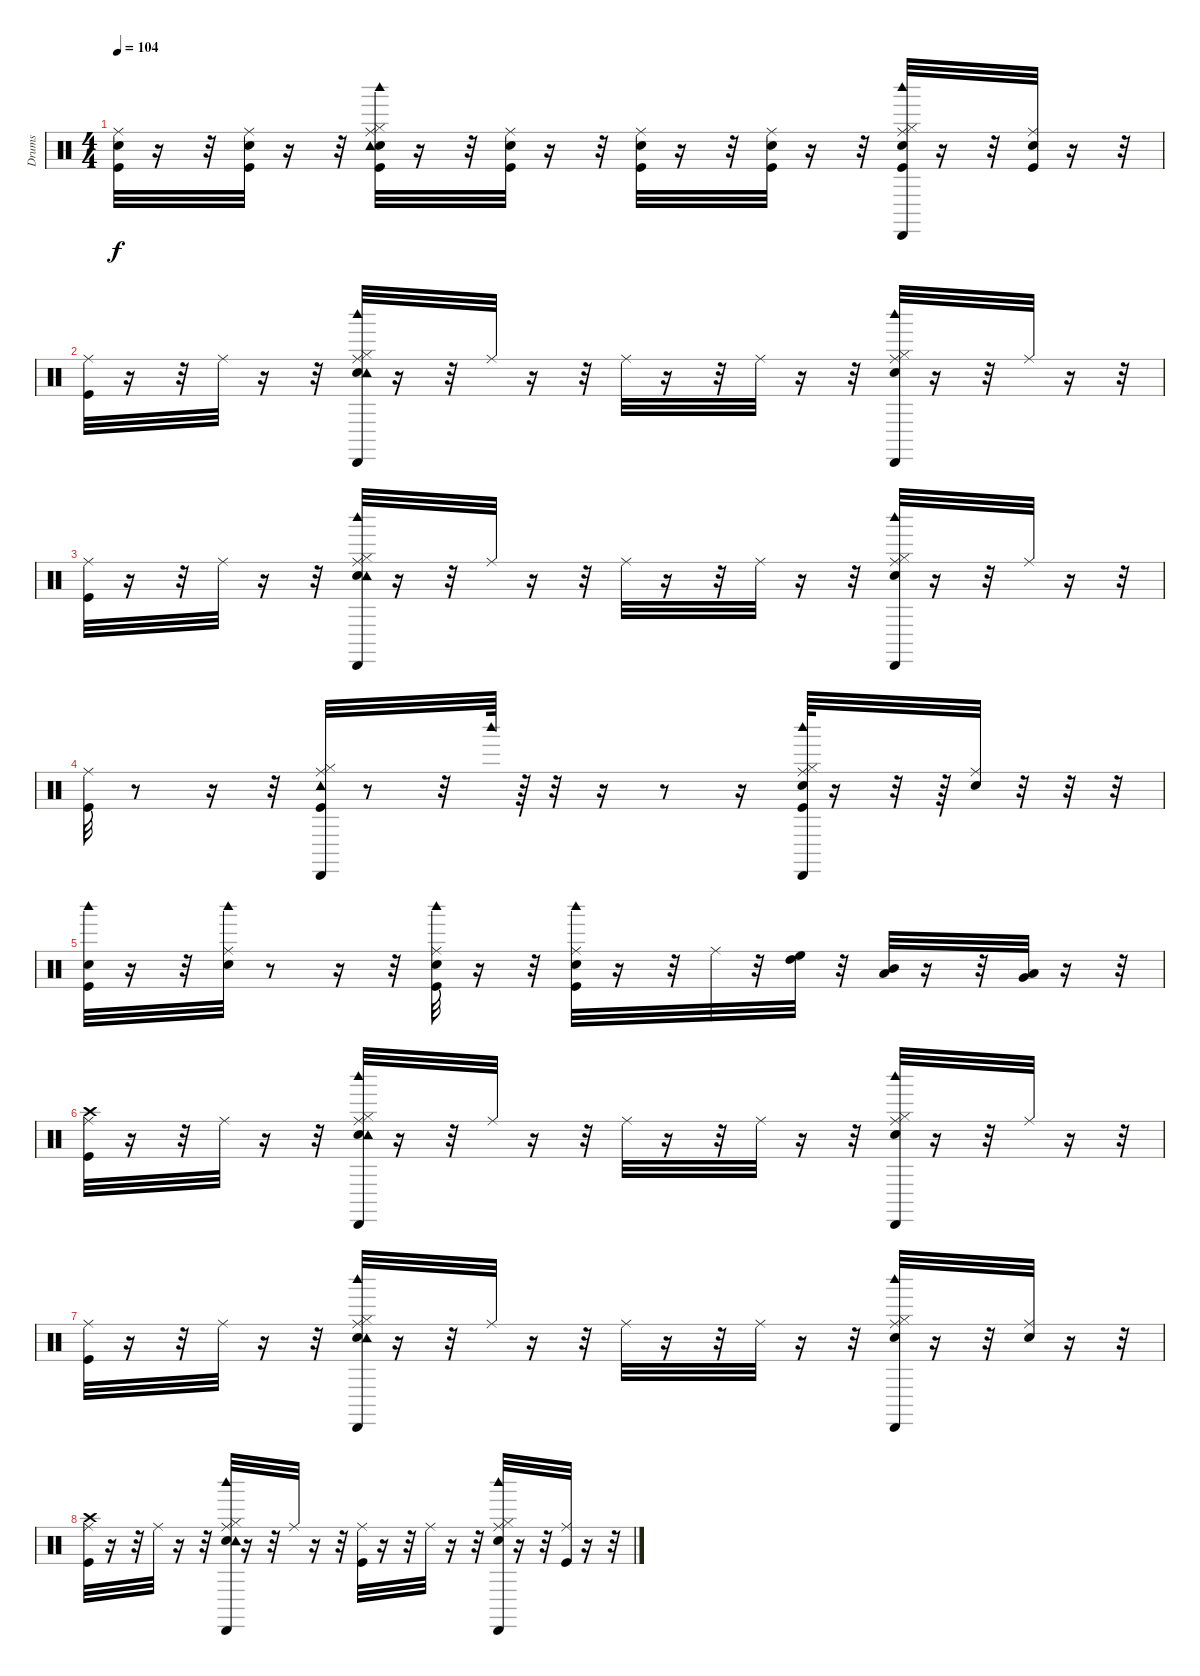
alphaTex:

\track ("Drums" "Drums") {instrument percussion}
\staff {score}
\articulation defaults
\ts (4 4)
\tempo 104
\clef neutral
\ks c
("Kick (hit)" "Snare (hit) 2" "Ride (middle)").32{dy f} r.16 r.32 ("Kick (hit)" "Snare (hit) 2" "Ride (middle)").32 r.16 r.32 ("Kick (hit)" "Snare (hit) 2" "Hi-Hat (closed)" "Ride (middle)" "Tambourine (hit)" "Woodblock high (hit)").32 r.16 r.32 ("Kick (hit)" "Snare (hit) 2" "Ride (middle)").32 r.16 r.32 ("Kick (hit)" "Snare (hit) 2" "Ride (middle)").32 r.16 r.32 ("Kick (hit)" "Snare (hit) 2" "Ride (middle)").32 r.16 r.32 ("Kick (hit)" "Snare (hit) 2" "Hi-Hat (closed)" "Ride (middle)" "Cabasa (hit)" "Woodblock high (hit)").32 r.16 r.32 ("Kick (hit)" "Snare (hit) 2" "Ride (middle)").32 r.16 r.32 |
("Kick (hit)" "Ride (middle)").32 r.16 r.32 "Ride (middle)".32 r.16 r.32 ("Snare (hit) 2" "Hi-Hat (closed)" "Ride (middle)" "Tambourine (hit)" "Cabasa (hit)" "Woodblock high (hit)").32 r.16 r.32 "Ride (middle)".32 r.16 r.32 "Ride (middle)".32 r.16 r.32 "Ride (middle)".32 r.16 r.32 ("Snare (hit) 2" "Hi-Hat (closed)" "Ride (middle)" "Cabasa (hit)" "Woodblock high (hit)").32 r.16 r.32 "Ride (middle)".32 r.16 r.32 |
("Kick (hit)" "Ride (middle)").32 r.16 r.32 "Ride (middle)".32 r.16 r.32 ("Snare (hit) 2" "Hi-Hat (closed)" "Ride (middle)" "Tambourine (hit)" "Cabasa (hit)" "Woodblock high (hit)").32 r.16 r.32 "Ride (middle)".32 r.16 r.32 "Ride (middle)".32 r.16 r.32 "Ride (middle)".32 r.16 r.32 ("Snare (hit) 2" "Hi-Hat (closed)" "Ride (middle)" "Cabasa (hit)" "Woodblock high (hit)").32 r.16 r.32 "Ride (middle)".32 r.16 r.32 |
("Kick (hit)" "Ride (middle)").32 r.8 r.16 r.32 ("Kick (hit)" "Hi-Hat (closed)" "Ride (middle)" "Tambourine (hit)" "Cabasa (hit)").32 r.8 r.32 "Woodblock high (hit)".64 r.64 r.32 r.16 r.8 r.16 ("Kick (hit)" "Snare (hit) 2" "Hi-Hat (closed)" "Ride (middle)" "Cabasa (hit)" "Woodblock high (hit)").64 r.16 r.32 r.64 ("Snare (hit) 2" "Ride (middle)").32 r.32 r.32 r.32 |
("Kick (hit)" "Snare (hit) 2" "Woodblock high (hit)").32 r.16 r.32 ("Snare (hit) 2" "Ride (middle)" "Woodblock high (hit)").32 r.8 r.16 r.32 ("Kick (hit)" "Snare (hit) 2" "Ride (middle)" "Woodblock high (hit)").32 r.16 r.32 ("Kick (hit)" "Snare (hit) 2" "Ride (middle)" "Woodblock high (hit)").32 r.16 r.32 "Ride (middle)".32 r.32 ("High Tom (hit)" "High Floor Tom (hit)").32 r.32 ("Low Tom (hit)" "Mid Tom (hit)").32 r.16 r.32 ("Low Floor Tom (hit)" "Very Low Tom (hit)").32 r.16 r.32 |
("Kick (hit)" "Crash high (hit)" "Ride (middle)").32 r.16 r.32 "Ride (middle)".32 r.16 r.32 ("Snare (hit) 2" "Hi-Hat (closed)" "Ride (middle)" "Tambourine (hit)" "Cabasa (hit)" "Woodblock high (hit)").32 r.16 r.32 "Ride (middle)".32 r.16 r.32 "Ride (middle)".32 r.16 r.32 "Ride (middle)".32 r.16 r.32 ("Snare (hit) 2" "Hi-Hat (closed)" "Ride (middle)" "Cabasa (hit)" "Woodblock high (hit)").32 r.16 r.32 "Ride (middle)".32 r.16 r.32 |
("Kick (hit)" "Ride (middle)").32 r.16 r.32 "Ride (middle)".32 r.16 r.32 ("Snare (hit) 2" "Hi-Hat (closed)" "Ride (middle)" "Tambourine (hit)" "Cabasa (hit)" "Woodblock high (hit)").32 r.16 r.32 "Ride (middle)".32 r.16 r.32 "Ride (middle)".32 r.16 r.32 "Ride (middle)".32 r.16 r.32 ("Snare (hit) 2" "Hi-Hat (closed)" "Ride (middle)" "Cabasa (hit)" "Woodblock high (hit)").32 r.16 r.32 ("Snare (hit) 2" "Ride (middle)").32 r.16 r.32 |
("Kick (hit)" "Crash high (hit)" "Ride (middle)").32 r.16 r.32 "Ride (middle)".32 r.16 r.32 ("Snare (hit) 2" "Hi-Hat (closed)" "Ride (middle)" "Tambourine (hit)" "Cabasa (hit)" "Woodblock high (hit)").32 r.16 r.32 "Ride (middle)".32 r.16 r.32 ("Kick (hit)" "Ride (middle)").32 r.16 r.32 "Ride (middle)".32 r.16 r.32 ("Snare (hit) 2" "Hi-Hat (closed)" "Ride (middle)" "Cabasa (hit)" "Woodblock high (hit)").32 r.16 r.32 ("Kick (hit)" "Ride (middle)").32 r.16 r.32
